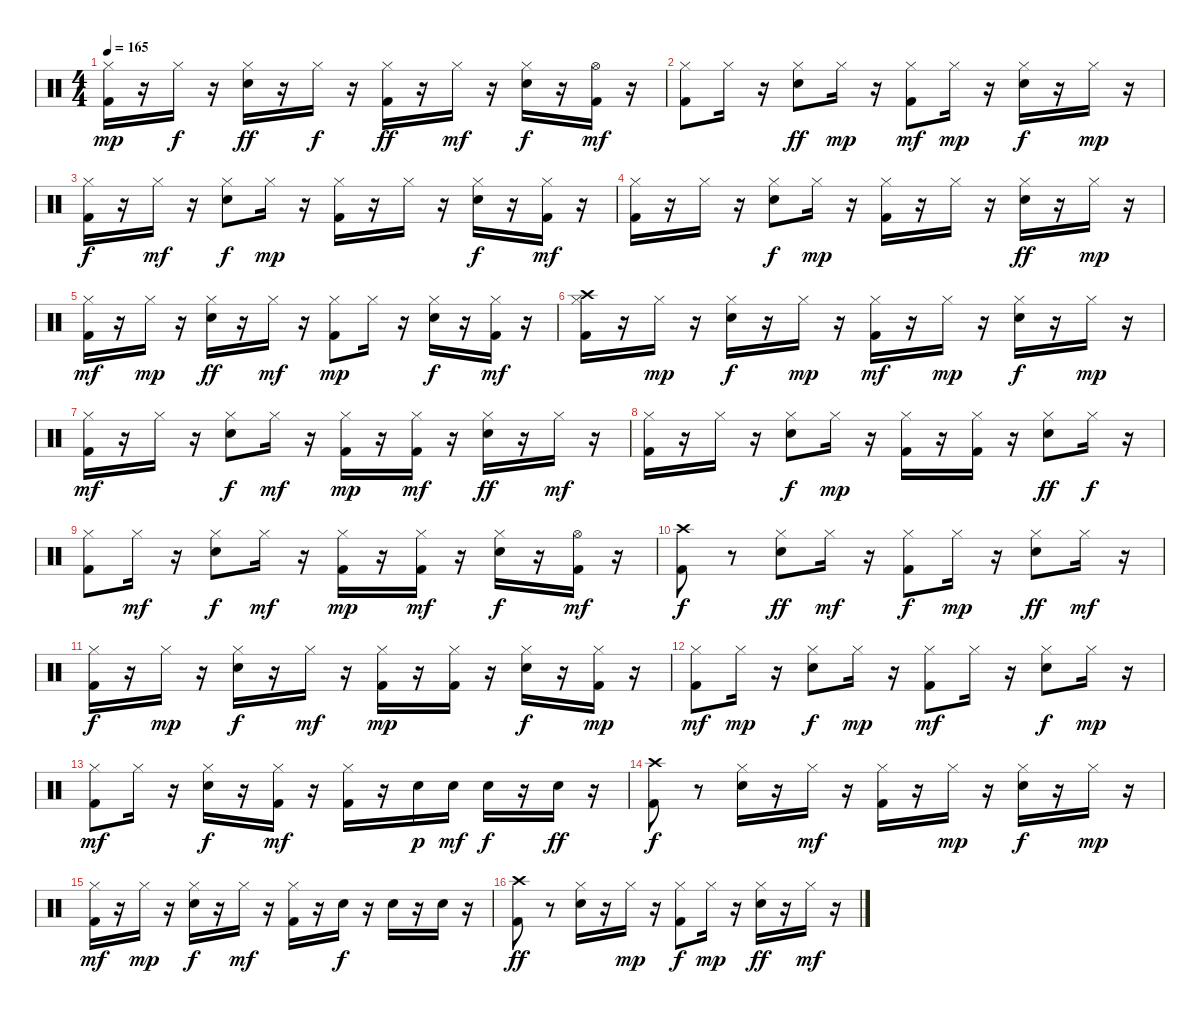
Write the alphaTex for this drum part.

\track "" {instrument percussion}
\staff {score}
\articulation defaults
\ts (4 4)
\tempo 165
\clef neutral
\ks c
("Hi-Hat (closed)" "Kick (hit) 2").16{dy mp} r.16 "Hi-Hat (closed)".16{dy f} r.16 ("Hi-Hat (closed)" "Electric Snare (hit)").16{dy ff} r.16 "Hi-Hat (closed)".16{dy f} r.16 ("Kick (hit) 2" "Hi-Hat (closed)").16{dy ff} r.16 "Hi-Hat (closed)".16{dy mf} r.16 ("Hi-Hat (closed)" "Electric Snare (hit)").16{dy f} r.16 ("Hi-Hat (open)" "Kick (hit) 2").16{dy mf} r.16 |
("Kick (hit) 2" "Hi-Hat (closed)").8 "Hi-Hat (closed)".16 r.16 ("Electric Snare (hit)" "Hi-Hat (closed)").8{dy ff} "Hi-Hat (closed)".16{dy mp} r.16 ("Kick (hit) 2" "Hi-Hat (closed)").8{dy mf} "Hi-Hat (closed)".16{dy mp} r.16 ("Hi-Hat (closed)" "Electric Snare (hit)").16{dy f} r.16 "Hi-Hat (closed)".16{dy mp} r.16 |
("Hi-Hat (closed)" "Kick (hit) 2").16{dy f} r.16 "Hi-Hat (closed)".16{dy mf} r.16 ("Hi-Hat (closed)" "Electric Snare (hit)").8{dy f} "Hi-Hat (closed)".16{dy mp} r.16 ("Hi-Hat (closed)" "Kick (hit) 2").16 r.16 "Hi-Hat (closed)".16 r.16 ("Electric Snare (hit)" "Hi-Hat (closed)").16{dy f} r.16 ("Hi-Hat (closed)" "Kick (hit) 2").16{dy mf} r.16 |
("Kick (hit) 2" "Hi-Hat (closed)").16 r.16 "Hi-Hat (closed)".16 r.16 ("Hi-Hat (closed)" "Electric Snare (hit)").8{dy f} "Hi-Hat (closed)".16{dy mp} r.16 ("Hi-Hat (closed)" "Kick (hit) 2").16 r.16 "Hi-Hat (closed)".16 r.16 ("Electric Snare (hit)" "Hi-Hat (closed)").16{dy ff} r.16 "Hi-Hat (closed)".16{dy mp} r.16 |
("Kick (hit) 2" "Hi-Hat (closed)").16{dy mf} r.16 "Hi-Hat (closed)".16{dy mp} r.16 ("Hi-Hat (closed)" "Electric Snare (hit)").16{dy ff} r.16 "Hi-Hat (closed)".16{dy mf} r.16 ("Hi-Hat (closed)" "Kick (hit) 2").8{dy mp} "Hi-Hat (closed)".16 r.16 ("Electric Snare (hit)" "Hi-Hat (closed)").16{dy f} r.16 ("Hi-Hat (closed)" "Kick (hit) 2").16{dy mf} r.16 |
("Kick (hit) 2" "Crash high (hit)" "Hi-Hat (closed)").16 r.16 "Hi-Hat (closed)".16{dy mp} r.16 ("Hi-Hat (closed)" "Electric Snare (hit)").16{dy f} r.16 "Hi-Hat (closed)".16{dy mp} r.16 ("Kick (hit) 2" "Hi-Hat (closed)").16{dy mf} r.16 "Hi-Hat (closed)".16{dy mp} r.16 ("Electric Snare (hit)" "Hi-Hat (closed)").16{dy f} r.16 "Hi-Hat (closed)".16{dy mp} r.16 |
("Kick (hit) 2" "Hi-Hat (closed)").16{dy mf} r.16 "Hi-Hat (closed)".16 r.16 ("Electric Snare (hit)" "Hi-Hat (closed)").8{dy f} "Hi-Hat (closed)".16{dy mf} r.16 ("Kick (hit) 2" "Hi-Hat (closed)").16{dy mp} r.16 ("Hi-Hat (closed)" "Kick (hit) 2").16{dy mf} r.16 ("Electric Snare (hit)" "Hi-Hat (closed)").16{dy ff} r.16 "Hi-Hat (closed)".16{dy mf} r.16 |
("Hi-Hat (closed)" "Kick (hit) 2").16 r.16 "Hi-Hat (closed)".16 r.16 ("Electric Snare (hit)" "Hi-Hat (closed)").8{dy f} "Hi-Hat (closed)".16{dy mp} r.16 ("Kick (hit) 2" "Hi-Hat (closed)").16 r.16 ("Hi-Hat (closed)" "Kick (hit) 2").16 r.16 ("Hi-Hat (closed)" "Electric Snare (hit)").8{dy ff} "Hi-Hat (closed)".16{dy f} r.16 |
("Kick (hit) 2" "Hi-Hat (closed)").8 "Hi-Hat (closed)".16{dy mf} r.16 ("Electric Snare (hit)" "Hi-Hat (closed)").8{dy f} "Hi-Hat (closed)".16{dy mf} r.16 ("Hi-Hat (closed)" "Kick (hit) 2").16{dy mp} r.16 ("Hi-Hat (closed)" "Kick (hit) 2").16{dy mf} r.16 ("Hi-Hat (closed)" "Electric Snare (hit)").16{dy f} r.16 ("Kick (hit) 2" "Hi-Hat (open)").16{dy mf} r.16 |
("Crash high (hit)" "Kick (hit) 2").8{dy f} r.8 ("Hi-Hat (closed)" "Electric Snare (hit)").8{dy ff} "Hi-Hat (closed)".16{dy mf} r.16 ("Hi-Hat (closed)" "Kick (hit) 2").8{dy f} "Hi-Hat (closed)".16{dy mp} r.16 ("Electric Snare (hit)" "Hi-Hat (closed)").8{dy ff} "Hi-Hat (closed)".16{dy mf} r.16 |
("Hi-Hat (closed)" "Kick (hit) 2").16{dy f} r.16 "Hi-Hat (closed)".16{dy mp} r.16 ("Electric Snare (hit)" "Hi-Hat (closed)").16{dy f} r.16 "Hi-Hat (closed)".16{dy mf} r.16 ("Kick (hit) 2" "Hi-Hat (closed)").16{dy mp} r.16 ("Kick (hit) 2" "Hi-Hat (closed)").16 r.16 ("Electric Snare (hit)" "Hi-Hat (closed)").16{dy f} r.16 ("Hi-Hat (closed)" "Kick (hit) 2").16{dy mp} r.16 |
("Hi-Hat (closed)" "Kick (hit) 2").8{dy mf} "Hi-Hat (closed)".16{dy mp} r.16 ("Electric Snare (hit)" "Hi-Hat (closed)").8{dy f} "Hi-Hat (closed)".16{dy mp} r.16 ("Kick (hit) 2" "Hi-Hat (closed)").8{dy mf} "Hi-Hat (closed)".16 r.16 ("Hi-Hat (closed)" "Electric Snare (hit)").8{dy f} "Hi-Hat (closed)".16{dy mp} r.16 |
("Hi-Hat (closed)" "Kick (hit) 2").8{dy mf} "Hi-Hat (closed)".16 r.16 ("Hi-Hat (closed)" "Electric Snare (hit)").16{dy f} r.16 ("Hi-Hat (closed)" "Kick (hit) 2").16{dy mf} r.16 ("Hi-Hat (closed)" "Kick (hit) 2").16 r.16 "Electric Snare (hit)".16{dy p} "Electric Snare (hit)".16{dy mf} "Electric Snare (hit)".16{dy f} r.16 "Electric Snare (hit)".16{dy ff} r.16 |
("Kick (hit) 2" "Crash high (hit)").8{dy f} r.8 ("Hi-Hat (closed)" "Electric Snare (hit)").16 r.16 "Hi-Hat (closed)".16{dy mf} r.16 ("Hi-Hat (closed)" "Kick (hit) 2").16 r.16 "Hi-Hat (closed)".16{dy mp} r.16 ("Electric Snare (hit)" "Hi-Hat (closed)").16{dy f} r.16 "Hi-Hat (closed)".16{dy mp} r.16 |
("Hi-Hat (closed)" "Kick (hit) 2").16{dy mf} r.16 "Hi-Hat (closed)".16{dy mp} r.16 ("Electric Snare (hit)" "Hi-Hat (closed)").16{dy f} r.16 "Hi-Hat (closed)".16{dy mf} r.16 ("Kick (hit) 2" "Hi-Hat (closed)").16 r.16 "Electric Snare (hit)".16{dy f} r.16 "Electric Snare (hit)".16 r.16 "Electric Snare (hit)".16 r.16 |
("Kick (hit) 2" "Crash high (hit)").8{dy ff} r.8 ("Hi-Hat (closed)" "Electric Snare (hit)").16 r.16 "Hi-Hat (closed)".16{dy mp} r.16 ("Hi-Hat (closed)" "Kick (hit) 2").8{dy f} "Hi-Hat (closed)".16{dy mp} r.16 ("Hi-Hat (closed)" "Electric Snare (hit)").16{dy ff} r.16 "Hi-Hat (closed)".16{dy mf} r.16
